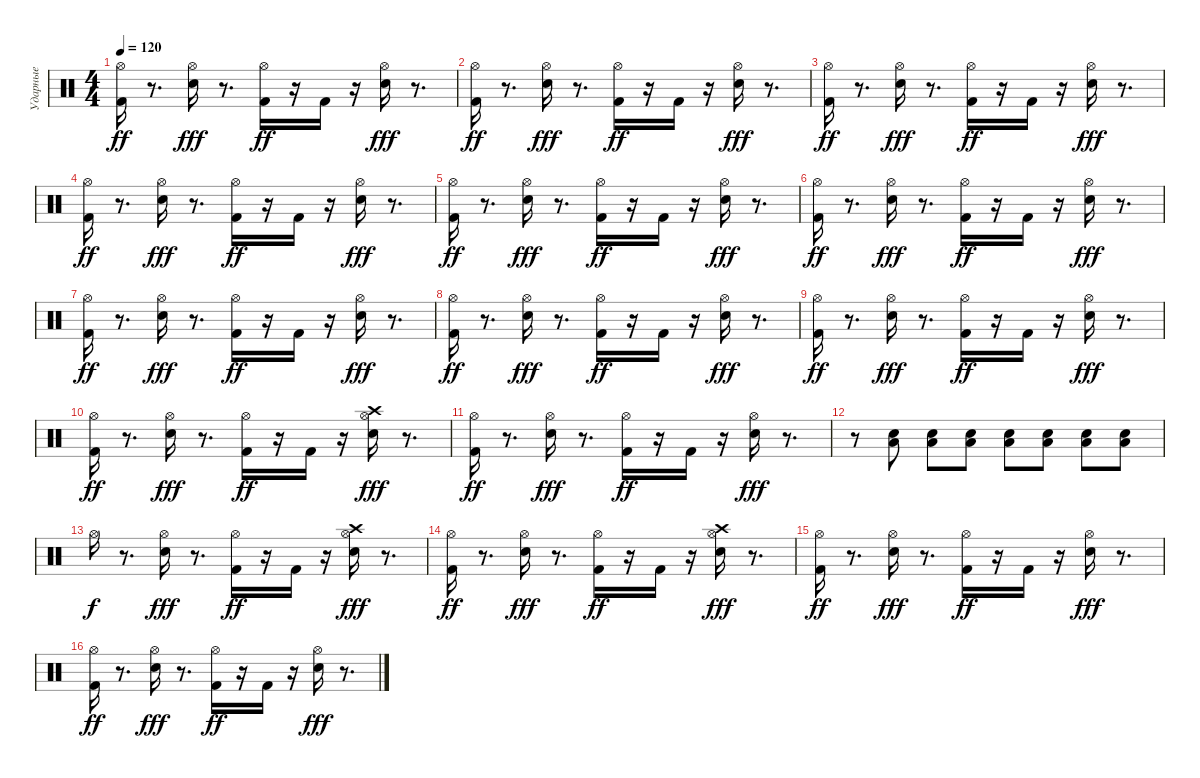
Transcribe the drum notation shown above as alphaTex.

\track ("Ударные" "Ударные") {instrument percussion}
\staff {score}
\articulation defaults
\ts (4 4)
\tempo 120
\clef neutral
\ks c
("Kick (hit) 2" "Hi-Hat (open)").16{dy ff} r.8{d} ("Snare (hit) 2" "Hi-Hat (open)").16{dy fff} r.8{d} ("Kick (hit) 2" "Hi-Hat (open)").16{dy ff} r.16 "Kick (hit) 2".16 r.16 ("Snare (hit) 2" "Hi-Hat (open)").16{dy fff} r.8{d} |
("Kick (hit) 2" "Hi-Hat (open)").16{dy ff} r.8{d} ("Snare (hit) 2" "Hi-Hat (open)").16{dy fff} r.8{d} ("Kick (hit) 2" "Hi-Hat (open)").16{dy ff} r.16 "Kick (hit) 2".16 r.16 ("Snare (hit) 2" "Hi-Hat (open)").16{dy fff} r.8{d} |
("Kick (hit) 2" "Hi-Hat (open)").16{dy ff} r.8{d} ("Snare (hit) 2" "Hi-Hat (open)").16{dy fff} r.8{d} ("Kick (hit) 2" "Hi-Hat (open)").16{dy ff} r.16 "Kick (hit) 2".16 r.16 ("Snare (hit) 2" "Hi-Hat (open)").16{dy fff} r.8{d} |
("Kick (hit) 2" "Hi-Hat (open)").16{dy ff} r.8{d} ("Snare (hit) 2" "Hi-Hat (open)").16{dy fff} r.8{d} ("Kick (hit) 2" "Hi-Hat (open)").16{dy ff} r.16 "Kick (hit) 2".16 r.16 ("Snare (hit) 2" "Hi-Hat (open)").16{dy fff} r.8{d} |
("Kick (hit) 2" "Hi-Hat (open)").16{dy ff} r.8{d} ("Snare (hit) 2" "Hi-Hat (open)").16{dy fff} r.8{d} ("Kick (hit) 2" "Hi-Hat (open)").16{dy ff} r.16 "Kick (hit) 2".16 r.16 ("Snare (hit) 2" "Hi-Hat (open)").16{dy fff} r.8{d} |
("Kick (hit) 2" "Hi-Hat (open)").16{dy ff} r.8{d} ("Snare (hit) 2" "Hi-Hat (open)").16{dy fff} r.8{d} ("Kick (hit) 2" "Hi-Hat (open)").16{dy ff} r.16 "Kick (hit) 2".16 r.16 ("Snare (hit) 2" "Hi-Hat (open)").16{dy fff} r.8{d} |
("Kick (hit) 2" "Hi-Hat (open)").16{dy ff} r.8{d} ("Snare (hit) 2" "Hi-Hat (open)").16{dy fff} r.8{d} ("Kick (hit) 2" "Hi-Hat (open)").16{dy ff} r.16 "Kick (hit) 2".16 r.16 ("Snare (hit) 2" "Hi-Hat (open)").16{dy fff} r.8{d} |
("Kick (hit) 2" "Hi-Hat (open)").16{dy ff} r.8{d} ("Snare (hit) 2" "Hi-Hat (open)").16{dy fff} r.8{d} ("Kick (hit) 2" "Hi-Hat (open)").16{dy ff} r.16 "Kick (hit) 2".16 r.16 ("Snare (hit) 2" "Hi-Hat (open)").16{dy fff} r.8{d} |
("Kick (hit) 2" "Hi-Hat (open)").16{dy ff} r.8{d} ("Snare (hit) 2" "Hi-Hat (open)").16{dy fff} r.8{d} ("Kick (hit) 2" "Hi-Hat (open)").16{dy ff} r.16 "Kick (hit) 2".16 r.16 ("Snare (hit) 2" "Hi-Hat (open)").16{dy fff} r.8{d} |
("Kick (hit) 2" "Hi-Hat (open)").16{dy ff} r.8{d} ("Snare (hit) 2" "Hi-Hat (open)").16{dy fff} r.8{d} ("Kick (hit) 2" "Hi-Hat (open)").16{dy ff} r.16 "Kick (hit) 2".16 r.16 ("Snare (hit) 2" "Hi-Hat (open)" "Crash high (hit)").16{dy fff} r.8{d} |
("Kick (hit) 2" "Hi-Hat (open)").16{dy ff} r.8{d} ("Snare (hit) 2" "Hi-Hat (open)").16{dy fff} r.8{d} ("Kick (hit) 2" "Hi-Hat (open)").16{dy ff} r.16 "Kick (hit) 2".16 r.16 ("Snare (hit) 2" "Hi-Hat (open)").16{dy fff} r.8{d} |
r.8 ("Snare (hit) 2" "Low Floor Tom (hit)").8 ("Snare (hit) 2" "Low Floor Tom (hit)").8 ("Snare (hit) 2" "Low Floor Tom (hit)").8 ("Snare (hit) 2" "Low Floor Tom (hit)").8 ("Snare (hit) 2" "Low Floor Tom (hit)").8 ("Snare (hit) 2" "Low Floor Tom (hit)").8 ("Snare (hit) 2" "Low Floor Tom (hit)").8 |
"Hi-Hat (open)".16{dy f} r.8{d} ("Snare (hit) 2" "Hi-Hat (open)").16{dy fff} r.8{d} ("Kick (hit) 2" "Hi-Hat (open)").16{dy ff} r.16 "Kick (hit) 2".16 r.16 ("Snare (hit) 2" "Hi-Hat (open)" "Crash high (hit)").16{dy fff} r.8{d} |
("Kick (hit) 2" "Hi-Hat (open)").16{dy ff} r.8{d} ("Snare (hit) 2" "Hi-Hat (open)").16{dy fff} r.8{d} ("Kick (hit) 2" "Hi-Hat (open)").16{dy ff} r.16 "Kick (hit) 2".16 r.16 ("Snare (hit) 2" "Hi-Hat (open)" "Crash high (hit)").16{dy fff} r.8{d} |
("Kick (hit) 2" "Hi-Hat (open)").16{dy ff} r.8{d} ("Snare (hit) 2" "Hi-Hat (open)").16{dy fff} r.8{d} ("Kick (hit) 2" "Hi-Hat (open)").16{dy ff} r.16 "Kick (hit) 2".16 r.16 ("Snare (hit) 2" "Hi-Hat (open)").16{dy fff} r.8{d} |
("Kick (hit) 2" "Hi-Hat (open)").16{dy ff} r.8{d} ("Snare (hit) 2" "Hi-Hat (open)").16{dy fff} r.8{d} ("Kick (hit) 2" "Hi-Hat (open)").16{dy ff} r.16 "Kick (hit) 2".16 r.16 ("Snare (hit) 2" "Hi-Hat (open)").16{dy fff} r.8{d}
